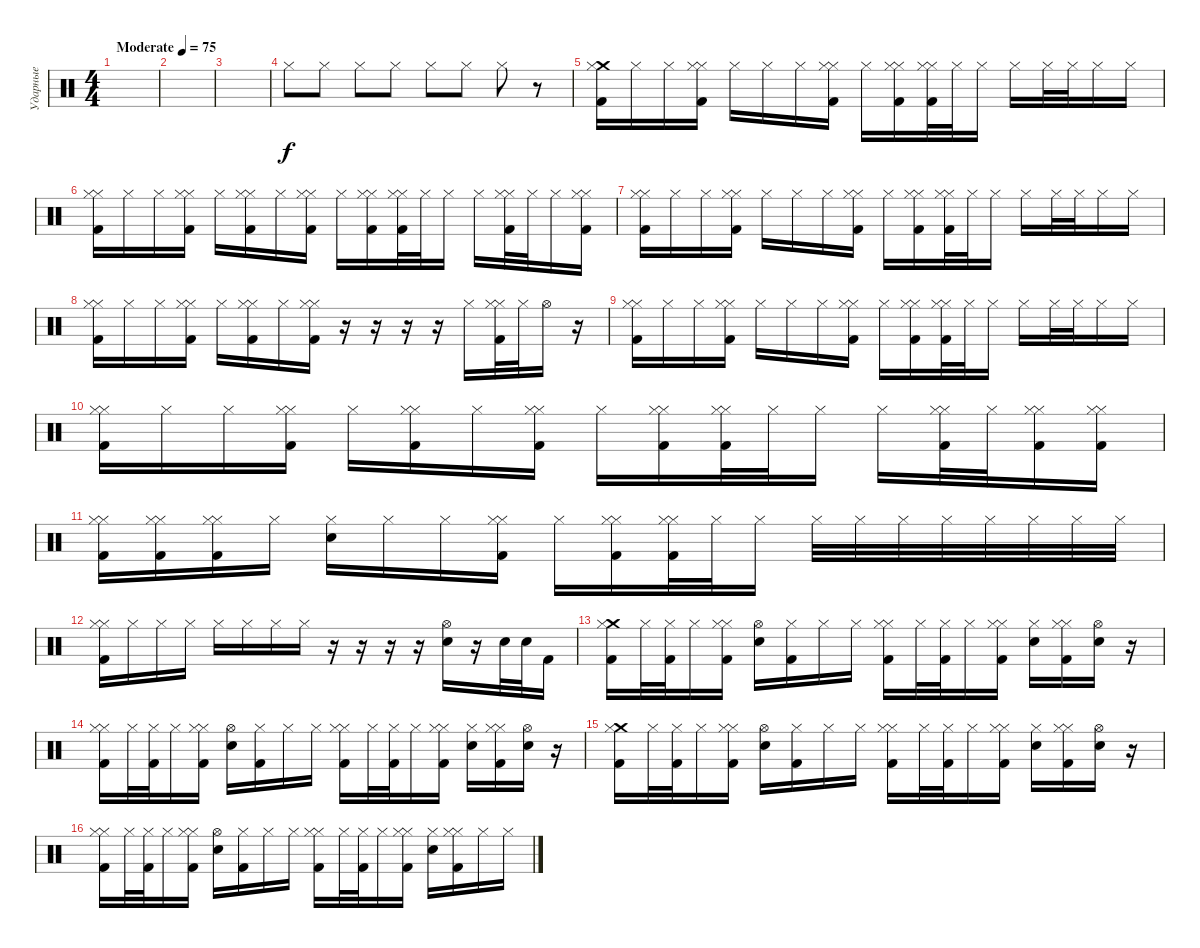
\track ("Ударные" "Ударные") {instrument percussion}
\staff {score}
\articulation defaults
\ts (4 4)
\tempo (75 "Moderate")
\clef neutral
\ks c
|
|
|
"Hi-Hat (closed)".8 "Hi-Hat (closed)".8 "Hi-Hat (closed)".8 "Hi-Hat (closed)".8 "Hi-Hat (closed)".8 "Hi-Hat (closed)".8 "Hi-Hat (closed)".8 r.8 |
("Crash medium (hit)" "Hi-Hat (closed)" "Kick (hit) 2").16 "Hi-Hat (closed)".16 "Hi-Hat (closed)".16 ("Hi-Hat (closed)" "Hi-Hat (closed)" "Kick (hit) 2").16 "Hi-Hat (closed)".16 "Hi-Hat (closed)".16 "Hi-Hat (closed)".16 ("Hi-Hat (closed)" "Hi-Hat (closed)" "Kick (hit) 2").16 "Hi-Hat (closed)".16 ("Hi-Hat (closed)" "Hi-Hat (closed)" "Kick (hit) 2").16 ("Hi-Hat (closed)" "Hi-Hat (closed)" "Kick (hit) 2").32 "Hi-Hat (closed)".32 "Hi-Hat (closed)".16 "Hi-Hat (closed)".16 "Hi-Hat (closed)".32 "Hi-Hat (closed)".32 "Hi-Hat (closed)".16 "Hi-Hat (closed)".16 |
("Hi-Hat (closed)" "Hi-Hat (closed)" "Kick (hit) 2").16 "Hi-Hat (closed)".16 "Hi-Hat (closed)".16 ("Hi-Hat (closed)" "Hi-Hat (closed)" "Kick (hit) 2").16 "Hi-Hat (closed)".16 ("Hi-Hat (closed)" "Hi-Hat (closed)" "Kick (hit) 2").16 "Hi-Hat (closed)".16 ("Hi-Hat (closed)" "Hi-Hat (closed)" "Kick (hit) 2").16 "Hi-Hat (closed)".16 ("Hi-Hat (closed)" "Hi-Hat (closed)" "Kick (hit) 2").16 ("Hi-Hat (closed)" "Hi-Hat (closed)" "Kick (hit) 2").32 "Hi-Hat (closed)".32 "Hi-Hat (closed)".16 "Hi-Hat (closed)".16 ("Hi-Hat (closed)" "Hi-Hat (closed)" "Kick (hit) 2").32 "Hi-Hat (closed)".32 "Hi-Hat (closed)".16 ("Hi-Hat (closed)" "Hi-Hat (closed)" "Kick (hit) 2").16 |
("Hi-Hat (closed)" "Hi-Hat (closed)" "Kick (hit) 2").16 "Hi-Hat (closed)".16 "Hi-Hat (closed)".16 ("Hi-Hat (closed)" "Hi-Hat (closed)" "Kick (hit) 2").16 "Hi-Hat (closed)".16 "Hi-Hat (closed)".16 "Hi-Hat (closed)".16 ("Hi-Hat (closed)" "Hi-Hat (closed)" "Kick (hit) 2").16 "Hi-Hat (closed)".16 ("Hi-Hat (closed)" "Hi-Hat (closed)" "Kick (hit) 2").16 ("Hi-Hat (closed)" "Hi-Hat (closed)" "Kick (hit) 2").32 "Hi-Hat (closed)".32 "Hi-Hat (closed)".16 "Hi-Hat (closed)".16 "Hi-Hat (closed)".32 "Hi-Hat (closed)".32 "Hi-Hat (closed)".16 "Hi-Hat (closed)".16 |
("Hi-Hat (closed)" "Hi-Hat (closed)" "Kick (hit) 2").16 "Hi-Hat (closed)".16 "Hi-Hat (closed)".16 ("Hi-Hat (closed)" "Hi-Hat (closed)" "Kick (hit) 2").16 "Hi-Hat (closed)".16 ("Hi-Hat (closed)" "Hi-Hat (closed)" "Kick (hit) 2").16 "Hi-Hat (closed)".16 ("Hi-Hat (closed)" "Hi-Hat (closed)" "Kick (hit) 2").16 r.16 r.16 r.16 r.16 "Hi-Hat (closed)".16 ("Hi-Hat (closed)" "Hi-Hat (closed)" "Kick (hit) 2").32 "Hi-Hat (closed)".32 "Hi-Hat (open)".16 r.16 |
("Hi-Hat (closed)" "Hi-Hat (closed)" "Kick (hit) 2").16 "Hi-Hat (closed)".16 "Hi-Hat (closed)".16 ("Hi-Hat (closed)" "Hi-Hat (closed)" "Kick (hit) 2").16 "Hi-Hat (closed)".16 "Hi-Hat (closed)".16 "Hi-Hat (closed)".16 ("Hi-Hat (closed)" "Hi-Hat (closed)" "Kick (hit) 2").16 "Hi-Hat (closed)".16 ("Hi-Hat (closed)" "Hi-Hat (closed)" "Kick (hit) 2").16 ("Hi-Hat (closed)" "Hi-Hat (closed)" "Kick (hit) 2").32 "Hi-Hat (closed)".32 "Hi-Hat (closed)".16 "Hi-Hat (closed)".16 "Hi-Hat (closed)".32 "Hi-Hat (closed)".32 "Hi-Hat (closed)".16 "Hi-Hat (closed)".16 |
("Hi-Hat (closed)" "Hi-Hat (closed)" "Kick (hit) 2").16 "Hi-Hat (closed)".16 "Hi-Hat (closed)".16 ("Hi-Hat (closed)" "Hi-Hat (closed)" "Kick (hit) 2").16 "Hi-Hat (closed)".16 ("Hi-Hat (closed)" "Hi-Hat (closed)" "Kick (hit) 2").16 "Hi-Hat (closed)".16 ("Hi-Hat (closed)" "Hi-Hat (closed)" "Kick (hit) 2").16 "Hi-Hat (closed)".16 ("Hi-Hat (closed)" "Hi-Hat (closed)" "Kick (hit) 2").16 ("Hi-Hat (closed)" "Hi-Hat (closed)" "Kick (hit) 2").32 "Hi-Hat (closed)".32 "Hi-Hat (closed)".16 "Hi-Hat (closed)".16 ("Hi-Hat (closed)" "Hi-Hat (closed)" "Kick (hit) 2").32 "Hi-Hat (closed)".32 ("Hi-Hat (closed)" "Hi-Hat (closed)" "Kick (hit) 2").16 ("Hi-Hat (closed)" "Hi-Hat (closed)" "Kick (hit) 2").16 |
("Hi-Hat (closed)" "Hi-Hat (closed)" "Kick (hit) 2").16 ("Hi-Hat (closed)" "Hi-Hat (closed)" "Kick (hit) 2").16 ("Hi-Hat (closed)" "Hi-Hat (closed)" "Kick (hit) 2").16 "Hi-Hat (closed)".16 ("Hi-Hat (closed)" "Electric Snare (hit)").16 "Hi-Hat (closed)".16 "Hi-Hat (closed)".16 ("Hi-Hat (closed)" "Hi-Hat (closed)" "Kick (hit) 2").16 "Hi-Hat (closed)".16 ("Hi-Hat (closed)" "Hi-Hat (closed)" "Kick (hit) 2").16 ("Hi-Hat (closed)" "Hi-Hat (closed)" "Kick (hit) 2").32 "Hi-Hat (closed)".32 "Hi-Hat (closed)".16 "Hi-Hat (closed)".32 "Hi-Hat (closed)".32 "Hi-Hat (closed)".32 "Hi-Hat (closed)".32 "Hi-Hat (closed)".32 "Hi-Hat (closed)".32 "Hi-Hat (closed)".32 "Hi-Hat (closed)".32 |
("Hi-Hat (closed)" "Hi-Hat (closed)" "Kick (hit) 2").16 "Hi-Hat (closed)".16 "Hi-Hat (closed)".16 "Hi-Hat (closed)".16 "Hi-Hat (closed)".16 "Hi-Hat (closed)".16 "Hi-Hat (closed)".16 "Hi-Hat (closed)".16 r.16 r.16 r.16 r.16 ("Hi-Hat (open)" "Electric Snare (hit)").16 r.16 "Electric Snare (hit)".32 "Electric Snare (hit)".32 "Kick (hit) 2".16 |
("Crash medium (hit)" "Hi-Hat (closed)" "Kick (hit) 2").16 "Hi-Hat (closed)".32 ("Hi-Hat (closed)" "Kick (hit) 2").32 "Hi-Hat (closed)".16 ("Hi-Hat (closed)" "Hi-Hat (closed)" "Kick (hit) 2").16 ("Hi-Hat (open)" "Electric Snare (hit)").16 ("Hi-Hat (closed)" "Kick (hit) 2").16 "Hi-Hat (closed)".16 "Hi-Hat (closed)".16 ("Hi-Hat (closed)" "Hi-Hat (closed)" "Kick (hit) 2").16 "Hi-Hat (closed)".32 ("Hi-Hat (closed)" "Kick (hit) 2").32 "Hi-Hat (closed)".16 ("Hi-Hat (closed)" "Hi-Hat (closed)" "Kick (hit) 2").16 ("Hi-Hat (closed)" "Electric Snare (hit)").16 ("Hi-Hat (closed)" "Hi-Hat (closed)" "Kick (hit) 2").16 ("Hi-Hat (open)" "Electric Snare (hit)").16 r.16 |
("Hi-Hat (closed)" "Hi-Hat (closed)" "Kick (hit) 2").16 "Hi-Hat (closed)".32 ("Hi-Hat (closed)" "Kick (hit) 2").32 "Hi-Hat (closed)".16 ("Hi-Hat (closed)" "Hi-Hat (closed)" "Kick (hit) 2").16 ("Hi-Hat (open)" "Electric Snare (hit)").16 ("Hi-Hat (closed)" "Kick (hit) 2").16 "Hi-Hat (closed)".16 "Hi-Hat (closed)".16 ("Hi-Hat (closed)" "Hi-Hat (closed)" "Kick (hit) 2").16 "Hi-Hat (closed)".32 ("Hi-Hat (closed)" "Kick (hit) 2").32 "Hi-Hat (closed)".16 ("Hi-Hat (closed)" "Hi-Hat (closed)" "Kick (hit) 2").16 ("Hi-Hat (closed)" "Electric Snare (hit)").16 ("Hi-Hat (closed)" "Hi-Hat (closed)" "Kick (hit) 2").16 ("Hi-Hat (open)" "Electric Snare (hit)").16 r.16 |
("Crash medium (hit)" "Hi-Hat (closed)" "Kick (hit) 2").16 "Hi-Hat (closed)".32 ("Hi-Hat (closed)" "Kick (hit) 2").32 "Hi-Hat (closed)".16 ("Hi-Hat (closed)" "Hi-Hat (closed)" "Kick (hit) 2").16 ("Hi-Hat (open)" "Electric Snare (hit)").16 ("Hi-Hat (closed)" "Kick (hit) 2").16 "Hi-Hat (closed)".16 "Hi-Hat (closed)".16 ("Hi-Hat (closed)" "Hi-Hat (closed)" "Kick (hit) 2").16 "Hi-Hat (closed)".32 ("Hi-Hat (closed)" "Kick (hit) 2").32 "Hi-Hat (closed)".16 ("Hi-Hat (closed)" "Hi-Hat (closed)" "Kick (hit) 2").16 ("Hi-Hat (closed)" "Electric Snare (hit)").16 ("Hi-Hat (closed)" "Hi-Hat (closed)" "Kick (hit) 2").16 ("Hi-Hat (open)" "Electric Snare (hit)").16 r.16 |
("Hi-Hat (closed)" "Hi-Hat (closed)" "Kick (hit) 2").16 "Hi-Hat (closed)".32 ("Hi-Hat (closed)" "Kick (hit) 2").32 "Hi-Hat (closed)".16 ("Hi-Hat (closed)" "Hi-Hat (closed)" "Kick (hit) 2").16 ("Hi-Hat (open)" "Electric Snare (hit)").16 ("Hi-Hat (closed)" "Kick (hit) 2").16 "Hi-Hat (closed)".16 "Hi-Hat (closed)".16 ("Hi-Hat (closed)" "Hi-Hat (closed)" "Kick (hit) 2").16 "Hi-Hat (closed)".32 ("Hi-Hat (closed)" "Kick (hit) 2").32 "Hi-Hat (closed)".16 ("Hi-Hat (closed)" "Hi-Hat (closed)" "Kick (hit) 2").16 ("Hi-Hat (closed)" "Electric Snare (hit)").16 ("Hi-Hat (closed)" "Hi-Hat (closed)" "Kick (hit) 2").16 "Hi-Hat (closed)".16 "Hi-Hat (closed)".16
